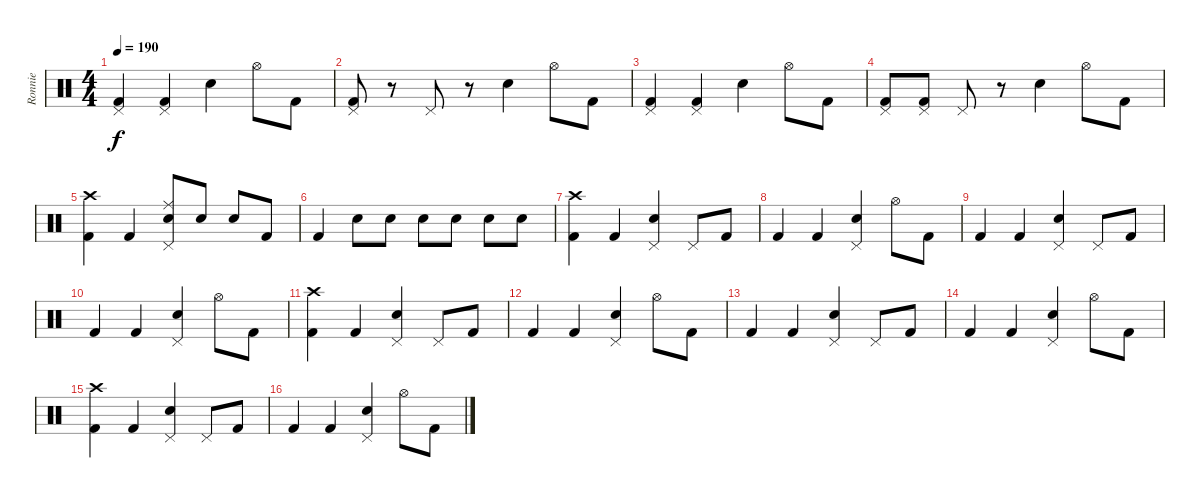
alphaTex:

\track ("Ronnie" "Ronnie") {instrument percussion}
\staff {score}
\articulation defaults
\ts (4 4)
\tempo 190
\clef neutral
\ks c
("Pedal Hi-Hat (hit)" "Kick (hit) 2").4{dy f} ("Pedal Hi-Hat (hit)" "Kick (hit) 2").4 "Electric Snare (hit)".4 "Hi-Hat (open)".8 "Kick (hit) 2".8 |
("Pedal Hi-Hat (hit)" "Kick (hit) 2").8 r.8 "Pedal Hi-Hat (hit)".8 r.8 "Electric Snare (hit)".4 "Hi-Hat (open)".8 "Kick (hit) 2".8 |
("Pedal Hi-Hat (hit)" "Kick (hit) 2").4 ("Pedal Hi-Hat (hit)" "Kick (hit) 2").4 "Electric Snare (hit)".4 "Hi-Hat (open)".8 "Kick (hit) 2".8 |
("Pedal Hi-Hat (hit)" "Kick (hit) 2").8 ("Pedal Hi-Hat (hit)" "Kick (hit) 2").8 "Pedal Hi-Hat (hit)".8 r.8 "Electric Snare (hit)".4 "Hi-Hat (open)".8 "Kick (hit) 2".8 |
("Crash high (hit)" "Kick (hit) 2").4 "Kick (hit) 2".4 ("Ride (middle)" "Pedal Hi-Hat (hit)" "Electric Snare (hit)").8 "Electric Snare (hit)".8 "Electric Snare (hit)".8 "Kick (hit) 2".8 |
"Kick (hit) 2".4 "Electric Snare (hit)".8 "Electric Snare (hit)".8 "Electric Snare (hit)".8 "Electric Snare (hit)".8 "Electric Snare (hit)".8 "Electric Snare (hit)".8 |
("Crash high (hit)" "Kick (hit) 2").4 "Kick (hit) 2".4 ("Electric Snare (hit)" "Pedal Hi-Hat (hit)").4 "Pedal Hi-Hat (hit)".8 "Kick (hit) 2".8 |
"Kick (hit) 2".4 "Kick (hit) 2".4 ("Electric Snare (hit)" "Pedal Hi-Hat (hit)").4 "Hi-Hat (open)".8 "Kick (hit) 2".8 |
"Kick (hit) 2".4 "Kick (hit) 2".4 ("Electric Snare (hit)" "Pedal Hi-Hat (hit)").4 "Pedal Hi-Hat (hit)".8 "Kick (hit) 2".8 |
"Kick (hit) 2".4 "Kick (hit) 2".4 ("Electric Snare (hit)" "Pedal Hi-Hat (hit)").4 "Hi-Hat (open)".8 "Kick (hit) 2".8 |
("Crash high (hit)" "Kick (hit) 2").4 "Kick (hit) 2".4 ("Electric Snare (hit)" "Pedal Hi-Hat (hit)").4 "Pedal Hi-Hat (hit)".8 "Kick (hit) 2".8 |
"Kick (hit) 2".4 "Kick (hit) 2".4 ("Electric Snare (hit)" "Pedal Hi-Hat (hit)").4 "Hi-Hat (open)".8 "Kick (hit) 2".8 |
"Kick (hit) 2".4 "Kick (hit) 2".4 ("Electric Snare (hit)" "Pedal Hi-Hat (hit)").4 "Pedal Hi-Hat (hit)".8 "Kick (hit) 2".8 |
"Kick (hit) 2".4 "Kick (hit) 2".4 ("Electric Snare (hit)" "Pedal Hi-Hat (hit)").4 "Hi-Hat (open)".8 "Kick (hit) 2".8 |
("Crash high (hit)" "Kick (hit) 2").4 "Kick (hit) 2".4 ("Electric Snare (hit)" "Pedal Hi-Hat (hit)").4 "Pedal Hi-Hat (hit)".8 "Kick (hit) 2".8 |
"Kick (hit) 2".4 "Kick (hit) 2".4 ("Electric Snare (hit)" "Pedal Hi-Hat (hit)").4 "Hi-Hat (open)".8 "Kick (hit) 2".8
